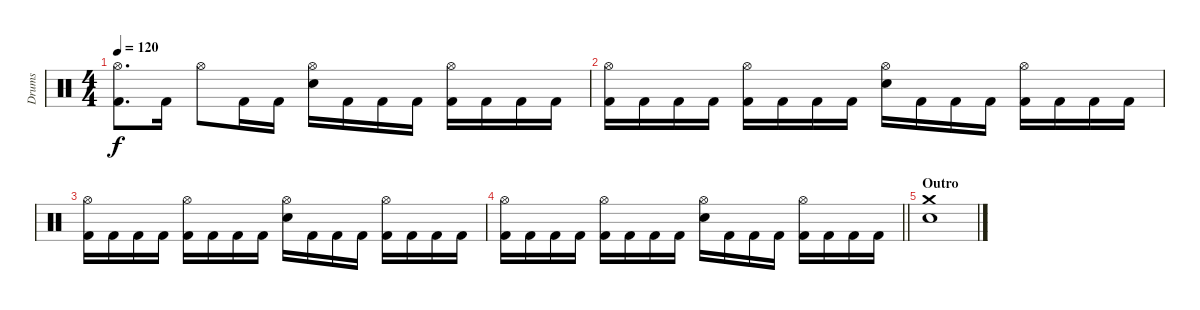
\track ("Drums" "Drums") {instrument percussion}
\staff {score}
\articulation defaults
\ts (4 4)
\tempo 120
\clef neutral
\ks c
("Hi-Hat (open)" "Kick (hit) 2").8{d dy f} "Kick (hit) 2".16 "Hi-Hat (open)".8 "Kick (hit) 2".16 "Kick (hit) 2".16 ("Hi-Hat (open)" "Snare (hit) 2").16 "Kick (hit) 2".16 "Kick (hit) 2".16 "Kick (hit) 2".16 ("Hi-Hat (open)" "Kick (hit) 2").16 "Kick (hit) 2".16 "Kick (hit) 2".16 "Kick (hit) 2".16 |
("Hi-Hat (open)" "Kick (hit) 2").16 "Kick (hit) 2".16 "Kick (hit) 2".16 "Kick (hit) 2".16 ("Hi-Hat (open)" "Kick (hit) 2").16 "Kick (hit) 2".16 "Kick (hit) 2".16 "Kick (hit) 2".16 ("Hi-Hat (open)" "Snare (hit) 2").16 "Kick (hit) 2".16 "Kick (hit) 2".16 "Kick (hit) 2".16 ("Hi-Hat (open)" "Kick (hit) 2").16 "Kick (hit) 2".16 "Kick (hit) 2".16 "Kick (hit) 2".16 |
("Hi-Hat (open)" "Kick (hit) 2").16 "Kick (hit) 2".16 "Kick (hit) 2".16 "Kick (hit) 2".16 ("Hi-Hat (open)" "Kick (hit) 2").16 "Kick (hit) 2".16 "Kick (hit) 2".16 "Kick (hit) 2".16 ("Hi-Hat (open)" "Snare (hit) 2").16 "Kick (hit) 2".16 "Kick (hit) 2".16 "Kick (hit) 2".16 ("Hi-Hat (open)" "Kick (hit) 2").16 "Kick (hit) 2".16 "Kick (hit) 2".16 "Kick (hit) 2".16 |
\barLineRight lightlight
("Hi-Hat (open)" "Kick (hit) 2").16 "Kick (hit) 2".16 "Kick (hit) 2".16 "Kick (hit) 2".16 ("Hi-Hat (open)" "Kick (hit) 2").16 "Kick (hit) 2".16 "Kick (hit) 2".16 "Kick (hit) 2".16 ("Hi-Hat (open)" "Snare (hit) 2").16 "Kick (hit) 2".16 "Kick (hit) 2".16 "Kick (hit) 2".16 ("Hi-Hat (open)" "Kick (hit) 2").16 "Kick (hit) 2".16 "Kick (hit) 2".16 "Kick (hit) 2".16 |
\section ("" "Outro")
("Crash medium (hit)" "Snare (hit) 2").1
